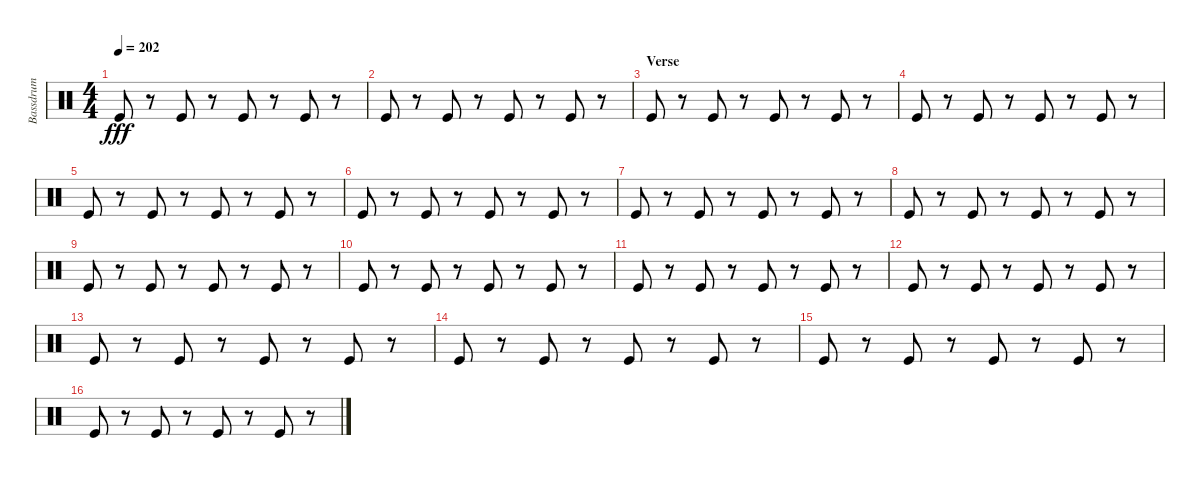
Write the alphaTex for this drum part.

\track ("Bassdrum" "Bassdrum") {instrument percussion}
\staff {score}
\articulation defaults
\ts (4 4)
\tempo 202
\clef neutral
\ks c "Kick (hit)".8{dy fff}
r.8 "Kick (hit)".8 r.8 "Kick (hit)".8 r.8 "Kick (hit)".8 r.8 |
"Kick (hit)".8 r.8 "Kick (hit)".8 r.8 "Kick (hit)".8 r.8 "Kick (hit)".8 r.8 |
\section ("" "Verse")
"Kick (hit)".8 r.8 "Kick (hit)".8 r.8 "Kick (hit)".8 r.8 "Kick (hit)".8 r.8 |
"Kick (hit)".8 r.8 "Kick (hit)".8 r.8 "Kick (hit)".8 r.8 "Kick (hit)".8 r.8 |
"Kick (hit)".8 r.8 "Kick (hit)".8 r.8 "Kick (hit)".8 r.8 "Kick (hit)".8 r.8 |
"Kick (hit)".8 r.8 "Kick (hit)".8 r.8 "Kick (hit)".8 r.8 "Kick (hit)".8 r.8 |
"Kick (hit)".8 r.8 "Kick (hit)".8 r.8 "Kick (hit)".8 r.8 "Kick (hit)".8 r.8 |
"Kick (hit)".8 r.8 "Kick (hit)".8 r.8 "Kick (hit)".8 r.8 "Kick (hit)".8 r.8 |
"Kick (hit)".8 r.8 "Kick (hit)".8 r.8 "Kick (hit)".8 r.8 "Kick (hit)".8 r.8 |
"Kick (hit)".8 r.8 "Kick (hit)".8 r.8 "Kick (hit)".8 r.8 "Kick (hit)".8 r.8 |
"Kick (hit)".8 r.8 "Kick (hit)".8 r.8 "Kick (hit)".8 r.8 "Kick (hit)".8 r.8 |
"Kick (hit)".8 r.8 "Kick (hit)".8 r.8 "Kick (hit)".8 r.8 "Kick (hit)".8 r.8 |
"Kick (hit)".8 r.8 "Kick (hit)".8 r.8 "Kick (hit)".8 r.8 "Kick (hit)".8 r.8 |
"Kick (hit)".8 r.8 "Kick (hit)".8 r.8 "Kick (hit)".8 r.8 "Kick (hit)".8 r.8 |
"Kick (hit)".8 r.8 "Kick (hit)".8 r.8 "Kick (hit)".8 r.8 "Kick (hit)".8 r.8 |
"Kick (hit)".8 r.8 "Kick (hit)".8 r.8 "Kick (hit)".8 r.8 "Kick (hit)".8 r.8
